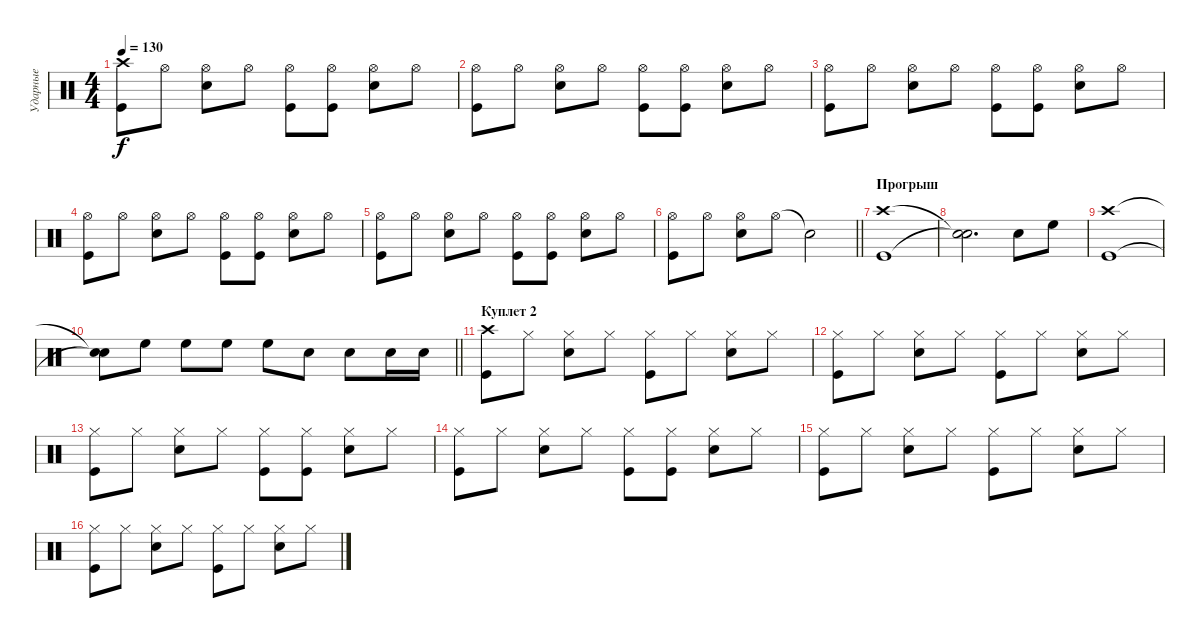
\track ("Ударные" "Ударные") {instrument percussion}
\staff {score}
\articulation defaults
\ts (4 4)
\tempo 130
\clef neutral
\ks c
("Crash high (hit)" "Kick (hit)").8{dy f} "Hi-Hat (open)".8 ("Hi-Hat (open)" "Snare (hit) 2").8 "Hi-Hat (open)".8 ("Hi-Hat (open)" "Kick (hit)").8 ("Hi-Hat (open)" "Kick (hit)").8 ("Hi-Hat (open)" "Snare (hit) 2").8 "Hi-Hat (open)".8 |
("Hi-Hat (open)" "Kick (hit)").8 "Hi-Hat (open)".8 ("Hi-Hat (open)" "Snare (hit) 2").8 "Hi-Hat (open)".8 ("Hi-Hat (open)" "Kick (hit)").8 ("Hi-Hat (open)" "Kick (hit)").8 ("Hi-Hat (open)" "Snare (hit) 2").8 "Hi-Hat (open)".8 |
("Hi-Hat (open)" "Kick (hit)").8 "Hi-Hat (open)".8 ("Hi-Hat (open)" "Snare (hit) 2").8 "Hi-Hat (open)".8 ("Hi-Hat (open)" "Kick (hit)").8 ("Hi-Hat (open)" "Kick (hit)").8 ("Hi-Hat (open)" "Snare (hit) 2").8 "Hi-Hat (open)".8 |
("Hi-Hat (open)" "Kick (hit)").8 "Hi-Hat (open)".8 ("Hi-Hat (open)" "Snare (hit) 2").8 "Hi-Hat (open)".8 ("Hi-Hat (open)" "Kick (hit)").8 ("Hi-Hat (open)" "Kick (hit)").8 ("Hi-Hat (open)" "Snare (hit) 2").8 "Hi-Hat (open)".8 |
("Hi-Hat (open)" "Kick (hit)").8 "Hi-Hat (open)".8 ("Hi-Hat (open)" "Snare (hit) 2").8 "Hi-Hat (open)".8 ("Hi-Hat (open)" "Kick (hit)").8 ("Hi-Hat (open)" "Kick (hit)").8 ("Hi-Hat (open)" "Snare (hit) 2").8 "Hi-Hat (open)".8 |
\barLineRight lightlight
("Hi-Hat (open)" "Kick (hit)").8 "Hi-Hat (open)".8 ("Hi-Hat (open)" "Snare (hit) 2").8 "Hi-Hat (open)".8 "Snare (hit)"{t}.2 |
\section ("" "Прогрыш")
("Crash high (hit)" "Kick (hit)").1 |
("Snare (hit)"{t} "Snare (hit)"{t}).2{d} "Snare (hit) 2".8 "High Floor Tom (hit)".8 |
("Crash high (hit)" "Kick (hit)").1 |
\barLineRight lightlight
("Snare (hit)"{t} "Snare (hit)"{t}).8 "High Floor Tom (hit)".8 "High Floor Tom (hit)".8 "High Floor Tom (hit)".8 "High Floor Tom (hit)".8 "Snare (hit) 2".8 "Snare (hit) 2".8 "Snare (hit) 2".16 "Snare (hit) 2".16 |
\section ("" "Куплет 2")
("Crash high (hit)" "Kick (hit)").8 "Hi-Hat (closed)".8 ("Hi-Hat (closed)" "Snare (hit) 2").8 "Hi-Hat (closed)".8 ("Hi-Hat (closed)" "Kick (hit)").8 "Hi-Hat (closed)".8 ("Hi-Hat (closed)" "Snare (hit) 2").8 "Hi-Hat (closed)".8 |
("Hi-Hat (closed)" "Kick (hit)").8 "Hi-Hat (closed)".8 ("Hi-Hat (closed)" "Snare (hit) 2").8 "Hi-Hat (closed)".8 ("Hi-Hat (closed)" "Kick (hit)").8 "Hi-Hat (closed)".8 ("Hi-Hat (closed)" "Snare (hit) 2").8 "Hi-Hat (closed)".8 |
("Hi-Hat (closed)" "Kick (hit)").8 "Hi-Hat (closed)".8 ("Hi-Hat (closed)" "Snare (hit) 2").8 "Hi-Hat (closed)".8 ("Hi-Hat (closed)" "Kick (hit)").8 ("Hi-Hat (closed)" "Kick (hit)").8 ("Hi-Hat (closed)" "Snare (hit) 2").8 "Hi-Hat (closed)".8 |
("Hi-Hat (closed)" "Kick (hit)").8 "Hi-Hat (closed)".8 ("Hi-Hat (closed)" "Snare (hit) 2").8 "Hi-Hat (closed)".8 ("Hi-Hat (closed)" "Kick (hit)").8 ("Hi-Hat (closed)" "Kick (hit)").8 ("Hi-Hat (closed)" "Snare (hit) 2").8 "Hi-Hat (closed)".8 |
("Hi-Hat (closed)" "Kick (hit)").8 "Hi-Hat (closed)".8 ("Hi-Hat (closed)" "Snare (hit) 2").8 "Hi-Hat (closed)".8 ("Hi-Hat (closed)" "Kick (hit)").8 "Hi-Hat (closed)".8 ("Hi-Hat (closed)" "Snare (hit) 2").8 "Hi-Hat (closed)".8 |
("Hi-Hat (closed)" "Kick (hit)").8 "Hi-Hat (closed)".8 ("Hi-Hat (closed)" "Snare (hit) 2").8 "Hi-Hat (closed)".8 ("Hi-Hat (closed)" "Kick (hit)").8 "Hi-Hat (closed)".8 ("Hi-Hat (closed)" "Snare (hit) 2").8 "Hi-Hat (closed)".8
